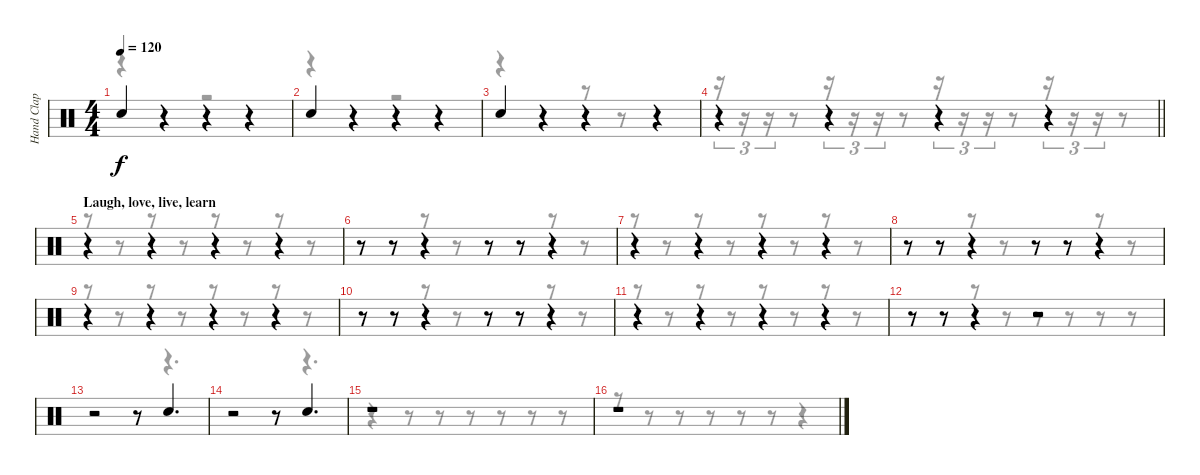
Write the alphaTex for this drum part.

\track ("Hand Clap" "Hand Clap") {instrument percussion}
\staff {score}
\articulation defaults
\voice
\ts (4 4)
\tempo 120
\clef neutral
\ks c "Hand Clap (hit)".4{dy f}
r.4 r.4 r.4 |
"Hand Clap (hit)".4 r.4 r.4 r.4 |
"Hand Clap (hit)".4 r.4 r.4 r.4 |
\barLineRight lightlight
r.4 r.4 r.4 r.4 |
\section ("" "Laugh, love, live, learn")
r.4 r.4 r.4 r.4 |
r.8 r.8 r.4 r.8 r.8 r.4 |
r.4 r.4 r.4 r.4 |
r.8 r.8 r.4 r.8 r.8 r.4 |
r.4 r.4 r.4 r.4 |
r.8 r.8 r.4 r.8 r.8 r.4 |
r.4 r.4 r.4 r.4 |
r.8 r.8 r.4 r.2 |
r.2 r.8 "Hand Clap (hit)".4{d} |
r.2 r.8 "Hand Clap (hit)".4{d} |
r.1 |
r.1
\voice
\clef neutral
\ottava regular
\simile none
\ks c
r.4{dy f} r.4 r.2 |
r.4 r.4 r.2 |
r.4 r.4 r.8 r.8 r.4 |
\barLineRight lightlight
r.16{tu (3 2)} r.16{tu (3 2)} r.16{tu (3 2)} r.8 r.16{tu (3 2)} r.16{tu (3 2)} r.16{tu (3 2)} r.8 r.16{tu (3 2)} r.16{tu (3 2)} r.16{tu (3 2)} r.8 r.16{tu (3 2)} r.16{tu (3 2)} r.16{tu (3 2)} r.8 |
r.8 r.8 r.8 r.8 r.8 r.8 r.8 r.8 |
r.8 r.8 r.8 r.8 r.8 r.8 r.8 r.8 |
r.8 r.8 r.8 r.8 r.8 r.8 r.8 r.8 |
r.8 r.8 r.8 r.8 r.8 r.8 r.8 r.8 |
r.8 r.8 r.8 r.8 r.8 r.8 r.8 r.8 |
r.8 r.8 r.8 r.8 r.8 r.8 r.8 r.8 |
r.8 r.8 r.8 r.8 r.8 r.8 r.8 r.8 |
r.8 r.8 r.8 r.8 r.8 r.8 r.8 r.8 |
r.2 r.8 r.4{d} |
r.2 r.8 r.4{d} |
r.4 r.8 r.8 r.8 r.8 r.8 r.8 |
r.8 r.8 r.8 r.8 r.8 r.8 r.4
